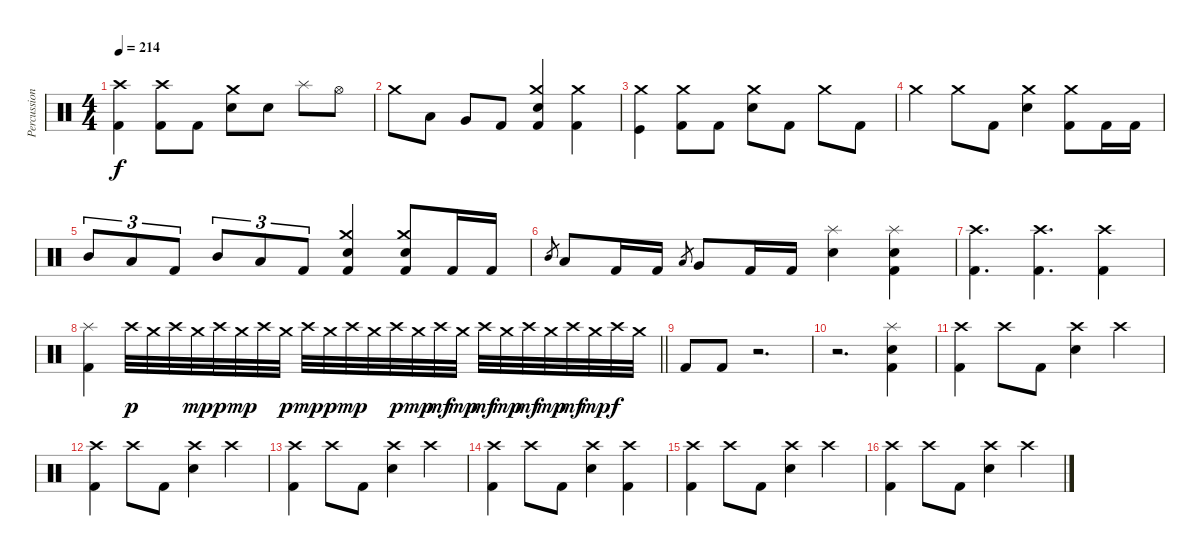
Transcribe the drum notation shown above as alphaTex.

\track ("Percussion" "Percussion") {instrument percussion}
\staff {score}
\articulation defaults
\ts (4 4)
\tempo 214
\clef neutral
\ks c
("Crash high (hit)" "Kick (hit) 2").4{dy f} ("Crash high (hit)" "Kick (hit) 2").8 "Kick (hit) 2".8 ("Crash medium (hit)" "Electric Snare (hit)").8 "Electric Snare (hit)".8 "Splash (hit)".8 "Hi-Hat (open)".8 |
"Crash medium (hit)".8 "Low Tom (hit)".8 "Very Low Tom (hit)".8 "Kick (hit) 2".8 ("Crash medium (hit)" "Electric Snare (hit)" "Kick (hit) 2").4 ("Crash medium (hit)" "Kick (hit) 2").4 |
("Crash medium (hit)" "Kick (hit)").4 ("Crash medium (hit)" "Kick (hit) 2").8 "Kick (hit) 2".8 ("Crash medium (hit)" "Electric Snare (hit)").8 "Kick (hit) 2".8 "Crash medium (hit)".8 "Kick (hit) 2".8 |
"Crash medium (hit)".4 "Crash medium (hit)".8 "Kick (hit) 2".8 ("Crash medium (hit)" "Electric Snare (hit)").4 ("Crash medium (hit)" "Kick (hit) 2").8 "Kick (hit) 2".16 "Kick (hit) 2".16 |
"Mid Tom (hit)".8{tu (3 2)} "Low Tom (hit)".8{tu (3 2)} "Kick (hit) 2".8{tu (3 2)} "Mid Tom (hit)".8{tu (3 2)} "Low Tom (hit)".8{tu (3 2)} "Kick (hit) 2".8{tu (3 2)} ("Crash medium (hit)" "Electric Snare (hit)" "Kick (hit) 2").4 ("Crash medium (hit)" "Electric Snare (hit)" "Kick (hit) 2").8 "Kick (hit) 2".16 "Kick (hit) 2".16 |
"Mid Tom (hit)".8{gr} "Low Tom (hit)".8 "Kick (hit) 2".16 "Kick (hit) 2".16 "Low Tom (hit)".8{gr} "Very Low Tom (hit)".8 "Kick (hit) 2".16 "Kick (hit) 2".16 ("Splash (hit)" "Electric Snare (hit)").4 ("Splash (hit)" "Electric Snare (hit)" "Kick (hit) 2").4 |
("Crash high (hit)" "Kick (hit) 2").4{d} ("Crash high (hit)" "Kick (hit) 2").4{d} ("Crash high (hit)" "Kick (hit) 2").4 |
\barLineRight lightlight
("Splash (hit)" "Kick (hit) 2").4 "Crash high (hit)".32{dy p} "Crash medium (hit)".32 "Crash high (hit)".32 "Crash medium (hit)".32{dy mp} "Crash high (hit)".32{dy p} "Crash medium (hit)".32{dy mp} "Crash high (hit)".32 "Crash medium (hit)".32{dy p} "Crash high (hit)".32{dy mp} "Crash medium (hit)".32{dy p} "Crash high (hit)".32{dy mp} "Crash medium (hit)".32 "Crash high (hit)".32{dy p} "Crash medium (hit)".32{dy mp} "Crash high (hit)".32{dy mf} "Crash medium (hit)".32{dy mp} "Crash high (hit)".32{dy mf} "Crash medium (hit)".32{dy mp} "Crash high (hit)".32{dy mf} "Crash medium (hit)".32{dy mp} "Crash high (hit)".32{dy mf} "Crash medium (hit)".32{dy mp} "Crash high (hit)".32{dy f} "Crash medium (hit)".32 |
\section ("" "")
"Kick (hit) 2".8 "Kick (hit) 2".8 r.2{d} |
r.2{d} ("Splash (hit)" "Electric Snare (hit)" "Kick (hit) 2").4 |
("Crash high (hit)" "Kick (hit) 2").4 "Crash high (hit)".8 "Kick (hit) 2".8 ("Crash high (hit)" "Electric Snare (hit)").4 "Crash high (hit)".4 |
("Crash high (hit)" "Kick (hit) 2").4 "Crash high (hit)".8 "Kick (hit) 2".8 ("Crash high (hit)" "Electric Snare (hit)").4 "Crash high (hit)".4 |
("Crash high (hit)" "Kick (hit) 2").4 "Crash high (hit)".8 "Kick (hit) 2".8 ("Crash high (hit)" "Electric Snare (hit)").4 "Crash high (hit)".4 |
("Crash high (hit)" "Kick (hit) 2").4 "Crash high (hit)".8 "Kick (hit) 2".8 ("Crash high (hit)" "Electric Snare (hit)").4 ("Crash high (hit)" "Kick (hit) 2").4 |
("Crash high (hit)" "Kick (hit) 2").4 "Crash high (hit)".8 "Kick (hit) 2".8 ("Crash high (hit)" "Electric Snare (hit)").4 "Crash high (hit)".4 |
("Crash high (hit)" "Kick (hit) 2").4 "Crash high (hit)".8 "Kick (hit) 2".8 ("Crash high (hit)" "Electric Snare (hit)").4 "Crash high (hit)".4
